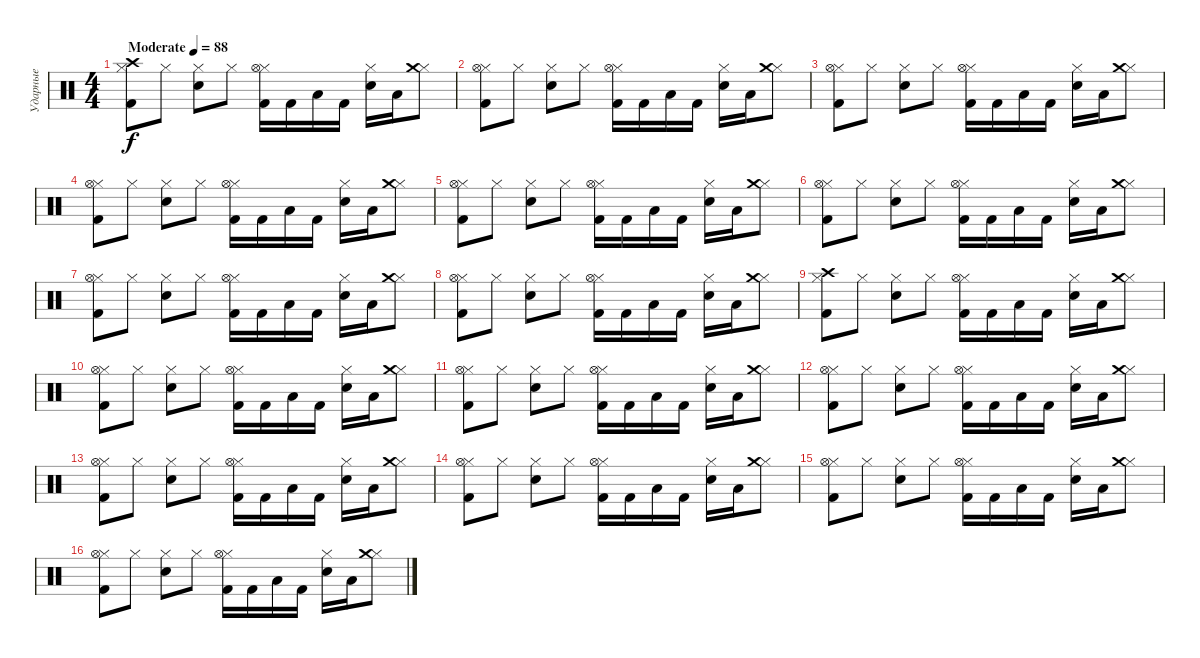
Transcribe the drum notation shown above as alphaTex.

\track ("Ударные" "Ударные") {instrument percussion}
\staff {score}
\articulation defaults
\ts (4 4)
\tempo (88 "Moderate")
\clef neutral
\ks c
("Hi-Hat (closed)" "Kick (hit) 2" "Crash high (hit)").8{dy f} "Hi-Hat (closed)".8 ("Hi-Hat (closed)" "Snare (hit) 2").8 "Hi-Hat (closed)".8 ("Hi-Hat (closed)" "Kick (hit) 2" "Hi-Hat (open)").16 "Kick (hit) 2".16 "Low Floor Tom (hit)".16 "Kick (hit) 2".16 ("Hi-Hat (closed)" "Snare (hit) 2").16 "Low Floor Tom (hit)".16 ("Hi-Hat (closed)" "Crash medium (hit)").8 |
("Hi-Hat (closed)" "Kick (hit) 2" "Hi-Hat (open)").8 "Hi-Hat (closed)".8 ("Hi-Hat (closed)" "Snare (hit) 2").8 "Hi-Hat (closed)".8 ("Hi-Hat (closed)" "Kick (hit) 2" "Hi-Hat (open)").16 "Kick (hit) 2".16 "Low Floor Tom (hit)".16 "Kick (hit) 2".16 ("Hi-Hat (closed)" "Snare (hit) 2").16 "Low Floor Tom (hit)".16 ("Hi-Hat (closed)" "Crash medium (hit)").8 |
("Hi-Hat (closed)" "Kick (hit) 2" "Hi-Hat (open)").8 "Hi-Hat (closed)".8 ("Hi-Hat (closed)" "Snare (hit) 2").8 "Hi-Hat (closed)".8 ("Hi-Hat (closed)" "Kick (hit) 2" "Hi-Hat (open)").16 "Kick (hit) 2".16 "Low Floor Tom (hit)".16 "Kick (hit) 2".16 ("Hi-Hat (closed)" "Snare (hit) 2").16 "Low Floor Tom (hit)".16 ("Hi-Hat (closed)" "Crash medium (hit)").8 |
("Hi-Hat (closed)" "Kick (hit) 2" "Hi-Hat (open)").8 "Hi-Hat (closed)".8 ("Hi-Hat (closed)" "Snare (hit) 2").8 "Hi-Hat (closed)".8 ("Hi-Hat (closed)" "Kick (hit) 2" "Hi-Hat (open)").16 "Kick (hit) 2".16 "Low Floor Tom (hit)".16 "Kick (hit) 2".16 ("Hi-Hat (closed)" "Snare (hit) 2").16 "Low Floor Tom (hit)".16 ("Hi-Hat (closed)" "Crash medium (hit)").8 |
("Hi-Hat (closed)" "Kick (hit) 2" "Hi-Hat (open)").8 "Hi-Hat (closed)".8 ("Hi-Hat (closed)" "Snare (hit) 2").8 "Hi-Hat (closed)".8 ("Hi-Hat (closed)" "Kick (hit) 2" "Hi-Hat (open)").16 "Kick (hit) 2".16 "Low Floor Tom (hit)".16 "Kick (hit) 2".16 ("Hi-Hat (closed)" "Snare (hit) 2").16 "Low Floor Tom (hit)".16 ("Hi-Hat (closed)" "Crash medium (hit)").8 |
("Hi-Hat (closed)" "Kick (hit) 2" "Hi-Hat (open)").8 "Hi-Hat (closed)".8 ("Hi-Hat (closed)" "Snare (hit) 2").8 "Hi-Hat (closed)".8 ("Hi-Hat (closed)" "Kick (hit) 2" "Hi-Hat (open)").16 "Kick (hit) 2".16 "Low Floor Tom (hit)".16 "Kick (hit) 2".16 ("Hi-Hat (closed)" "Snare (hit) 2").16 "Low Floor Tom (hit)".16 ("Hi-Hat (closed)" "Crash medium (hit)").8 |
("Hi-Hat (closed)" "Kick (hit) 2" "Hi-Hat (open)").8 "Hi-Hat (closed)".8 ("Hi-Hat (closed)" "Snare (hit) 2").8 "Hi-Hat (closed)".8 ("Hi-Hat (closed)" "Kick (hit) 2" "Hi-Hat (open)").16 "Kick (hit) 2".16 "Low Floor Tom (hit)".16 "Kick (hit) 2".16 ("Hi-Hat (closed)" "Snare (hit) 2").16 "Low Floor Tom (hit)".16 ("Hi-Hat (closed)" "Crash medium (hit)").8 |
("Hi-Hat (closed)" "Kick (hit) 2" "Hi-Hat (open)").8 "Hi-Hat (closed)".8 ("Hi-Hat (closed)" "Snare (hit) 2").8 "Hi-Hat (closed)".8 ("Hi-Hat (closed)" "Kick (hit) 2" "Hi-Hat (open)").16 "Kick (hit) 2".16 "Low Floor Tom (hit)".16 "Kick (hit) 2".16 ("Hi-Hat (closed)" "Snare (hit) 2").16 "Low Floor Tom (hit)".16 ("Hi-Hat (closed)" "Crash medium (hit)").8 |
("Hi-Hat (closed)" "Kick (hit) 2" "Crash high (hit)").8 "Hi-Hat (closed)".8 ("Hi-Hat (closed)" "Snare (hit) 2").8 "Hi-Hat (closed)".8 ("Hi-Hat (closed)" "Kick (hit) 2" "Hi-Hat (open)").16 "Kick (hit) 2".16 "Low Floor Tom (hit)".16 "Kick (hit) 2".16 ("Hi-Hat (closed)" "Snare (hit) 2").16 "Low Floor Tom (hit)".16 ("Hi-Hat (closed)" "Crash medium (hit)").8 |
("Hi-Hat (closed)" "Kick (hit) 2" "Hi-Hat (open)").8 "Hi-Hat (closed)".8 ("Hi-Hat (closed)" "Snare (hit) 2").8 "Hi-Hat (closed)".8 ("Hi-Hat (closed)" "Kick (hit) 2" "Hi-Hat (open)").16 "Kick (hit) 2".16 "Low Floor Tom (hit)".16 "Kick (hit) 2".16 ("Hi-Hat (closed)" "Snare (hit) 2").16 "Low Floor Tom (hit)".16 ("Hi-Hat (closed)" "Crash medium (hit)").8 |
("Hi-Hat (closed)" "Kick (hit) 2" "Hi-Hat (open)").8 "Hi-Hat (closed)".8 ("Hi-Hat (closed)" "Snare (hit) 2").8 "Hi-Hat (closed)".8 ("Hi-Hat (closed)" "Kick (hit) 2" "Hi-Hat (open)").16 "Kick (hit) 2".16 "Low Floor Tom (hit)".16 "Kick (hit) 2".16 ("Hi-Hat (closed)" "Snare (hit) 2").16 "Low Floor Tom (hit)".16 ("Hi-Hat (closed)" "Crash medium (hit)").8 |
("Hi-Hat (closed)" "Kick (hit) 2" "Hi-Hat (open)").8 "Hi-Hat (closed)".8 ("Hi-Hat (closed)" "Snare (hit) 2").8 "Hi-Hat (closed)".8 ("Hi-Hat (closed)" "Kick (hit) 2" "Hi-Hat (open)").16 "Kick (hit) 2".16 "Low Floor Tom (hit)".16 "Kick (hit) 2".16 ("Hi-Hat (closed)" "Snare (hit) 2").16 "Low Floor Tom (hit)".16 ("Hi-Hat (closed)" "Crash medium (hit)").8 |
("Hi-Hat (closed)" "Kick (hit) 2" "Hi-Hat (open)").8 "Hi-Hat (closed)".8 ("Hi-Hat (closed)" "Snare (hit) 2").8 "Hi-Hat (closed)".8 ("Hi-Hat (closed)" "Kick (hit) 2" "Hi-Hat (open)").16 "Kick (hit) 2".16 "Low Floor Tom (hit)".16 "Kick (hit) 2".16 ("Hi-Hat (closed)" "Snare (hit) 2").16 "Low Floor Tom (hit)".16 ("Hi-Hat (closed)" "Crash medium (hit)").8 |
("Hi-Hat (closed)" "Kick (hit) 2" "Hi-Hat (open)").8 "Hi-Hat (closed)".8 ("Hi-Hat (closed)" "Snare (hit) 2").8 "Hi-Hat (closed)".8 ("Hi-Hat (closed)" "Kick (hit) 2" "Hi-Hat (open)").16 "Kick (hit) 2".16 "Low Floor Tom (hit)".16 "Kick (hit) 2".16 ("Hi-Hat (closed)" "Snare (hit) 2").16 "Low Floor Tom (hit)".16 ("Hi-Hat (closed)" "Crash medium (hit)").8 |
("Hi-Hat (closed)" "Kick (hit) 2" "Hi-Hat (open)").8 "Hi-Hat (closed)".8 ("Hi-Hat (closed)" "Snare (hit) 2").8 "Hi-Hat (closed)".8 ("Hi-Hat (closed)" "Kick (hit) 2" "Hi-Hat (open)").16 "Kick (hit) 2".16 "Low Floor Tom (hit)".16 "Kick (hit) 2".16 ("Hi-Hat (closed)" "Snare (hit) 2").16 "Low Floor Tom (hit)".16 ("Hi-Hat (closed)" "Crash medium (hit)").8 |
("Hi-Hat (closed)" "Kick (hit) 2" "Hi-Hat (open)").8 "Hi-Hat (closed)".8 ("Hi-Hat (closed)" "Snare (hit) 2").8 "Hi-Hat (closed)".8 ("Hi-Hat (closed)" "Kick (hit) 2" "Hi-Hat (open)").16 "Kick (hit) 2".16 "Low Floor Tom (hit)".16 "Kick (hit) 2".16 ("Hi-Hat (closed)" "Snare (hit) 2").16 "Low Floor Tom (hit)".16 ("Hi-Hat (closed)" "Crash medium (hit)").8
